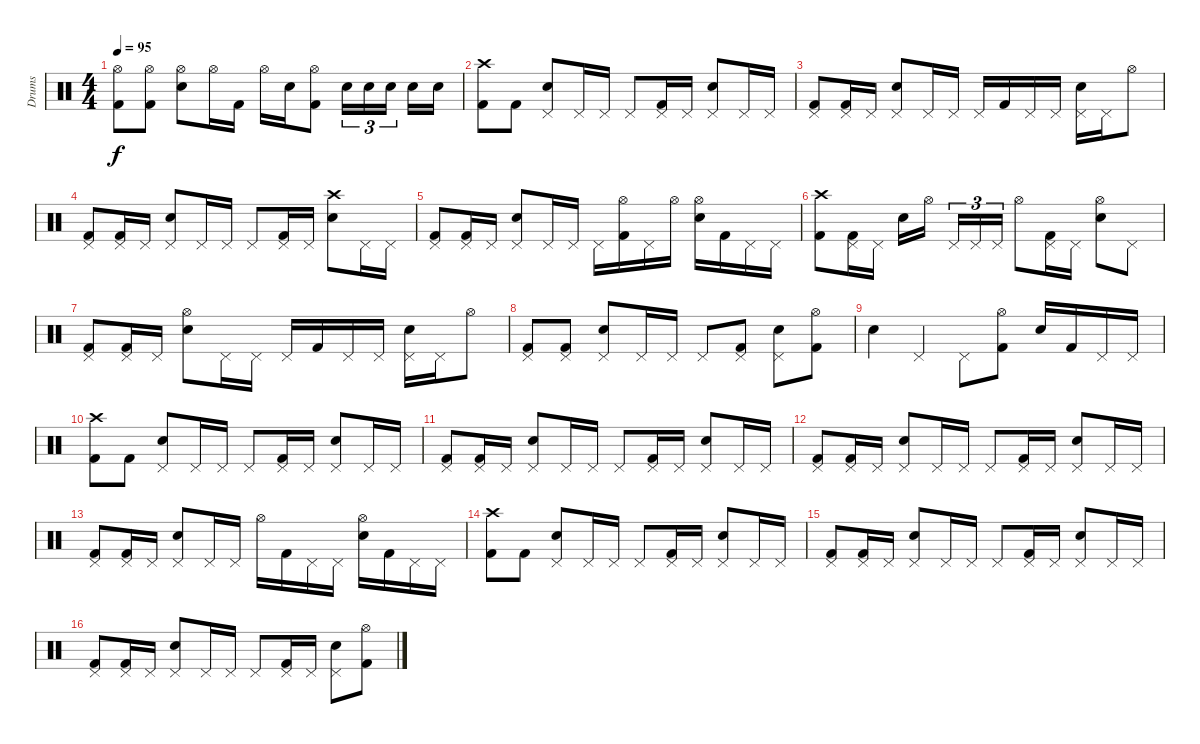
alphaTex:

\track ("Drums" "Drums") {instrument percussion}
\staff {score}
\articulation defaults
\ts (4 4)
\tempo 95
\clef neutral
\ks c
("Hi-Hat (open)" "Kick (hit) 2").8{dy f} ("Hi-Hat (open)" "Kick (hit) 2").8 ("Hi-Hat (open)" "Electric Snare (hit)").8 "Hi-Hat (open)".16 "Kick (hit) 2".16 "Hi-Hat (open)".16 "Electric Snare (hit)".16 ("Hi-Hat (open)" "Kick (hit) 2").8 "Electric Snare (hit)".16{tu (3 2)} "Electric Snare (hit)".16{tu (3 2)} "Electric Snare (hit)".16{tu (3 2) beam splitsecondary} "Electric Snare (hit)".16 "Electric Snare (hit)".16 |
("Crash high (hit)" "Kick (hit) 2").8 "Kick (hit) 2".8 ("Pedal Hi-Hat (hit)" "Electric Snare (hit)").8 "Pedal Hi-Hat (hit)".16 "Pedal Hi-Hat (hit)".16 "Pedal Hi-Hat (hit)".8 ("Pedal Hi-Hat (hit)" "Kick (hit) 2").16 "Pedal Hi-Hat (hit)".16 ("Pedal Hi-Hat (hit)" "Electric Snare (hit)").8 "Pedal Hi-Hat (hit)".16 "Pedal Hi-Hat (hit)".16 |
("Pedal Hi-Hat (hit)" "Kick (hit) 2").8 ("Pedal Hi-Hat (hit)" "Kick (hit) 2").16 "Pedal Hi-Hat (hit)".16 ("Pedal Hi-Hat (hit)" "Electric Snare (hit)").8 "Pedal Hi-Hat (hit)".16 "Pedal Hi-Hat (hit)".16 "Pedal Hi-Hat (hit)".16 "Kick (hit) 2".16 "Pedal Hi-Hat (hit)".16 "Pedal Hi-Hat (hit)".16 ("Pedal Hi-Hat (hit)" "Electric Snare (hit)").16 "Pedal Hi-Hat (hit)".16 "Hi-Hat (open)".8 |
("Pedal Hi-Hat (hit)" "Kick (hit) 2").8 ("Pedal Hi-Hat (hit)" "Kick (hit) 2").16 "Pedal Hi-Hat (hit)".16 ("Pedal Hi-Hat (hit)" "Electric Snare (hit)").8 "Pedal Hi-Hat (hit)".16 "Pedal Hi-Hat (hit)".16 "Pedal Hi-Hat (hit)".8 ("Pedal Hi-Hat (hit)" "Kick (hit) 2").16 "Pedal Hi-Hat (hit)".16 ("Crash high (hit)" "Electric Snare (hit)").8 "Pedal Hi-Hat (hit)".16 "Pedal Hi-Hat (hit)".16 |
("Pedal Hi-Hat (hit)" "Kick (hit) 2").8 ("Pedal Hi-Hat (hit)" "Kick (hit) 2").16 "Pedal Hi-Hat (hit)".16 ("Pedal Hi-Hat (hit)" "Electric Snare (hit)").8 "Pedal Hi-Hat (hit)".16 "Pedal Hi-Hat (hit)".16 "Pedal Hi-Hat (hit)".16 ("Hi-Hat (open)" "Kick (hit) 2").16 "Pedal Hi-Hat (hit)".16 "Hi-Hat (open)".16 ("Hi-Hat (open)" "Electric Snare (hit)").16 "Kick (hit) 2".16 "Pedal Hi-Hat (hit)".16 "Pedal Hi-Hat (hit)".16 |
("Crash high (hit)" "Kick (hit) 2").8 ("Pedal Hi-Hat (hit)" "Kick (hit) 2").16 "Pedal Hi-Hat (hit)".16 "Electric Snare (hit)".16 "Hi-Hat (open)".16{beam splitsecondary} "Pedal Hi-Hat (hit)".16{tu (3 2)} "Pedal Hi-Hat (hit)".16{tu (3 2)} "Pedal Hi-Hat (hit)".16{tu (3 2)} "Hi-Hat (open)".8 ("Pedal Hi-Hat (hit)" "Kick (hit) 2").16 "Pedal Hi-Hat (hit)".16 ("Hi-Hat (open)" "Electric Snare (hit)").8 "Pedal Hi-Hat (hit)".8 |
("Pedal Hi-Hat (hit)" "Kick (hit) 2").8 ("Pedal Hi-Hat (hit)" "Kick (hit) 2").16 "Pedal Hi-Hat (hit)".16 ("Hi-Hat (open)" "Electric Snare (hit)").8 "Pedal Hi-Hat (hit)".16 "Pedal Hi-Hat (hit)".16 "Pedal Hi-Hat (hit)".16 "Kick (hit) 2".16 "Pedal Hi-Hat (hit)".16 "Pedal Hi-Hat (hit)".16 ("Pedal Hi-Hat (hit)" "Electric Snare (hit)").16 "Pedal Hi-Hat (hit)".16 "Hi-Hat (open)".8 |
("Pedal Hi-Hat (hit)" "Kick (hit) 2").8 ("Pedal Hi-Hat (hit)" "Kick (hit) 2").8 ("Pedal Hi-Hat (hit)" "Electric Snare (hit)").8 "Pedal Hi-Hat (hit)".16 "Pedal Hi-Hat (hit)".16 "Pedal Hi-Hat (hit)".8 ("Pedal Hi-Hat (hit)" "Kick (hit) 2").8 ("Pedal Hi-Hat (hit)" "Electric Snare (hit)").8 ("Hi-Hat (open)" "Kick (hit) 2").8 |
"Electric Snare (hit)".4 "Pedal Hi-Hat (hit)".4 "Pedal Hi-Hat (hit)".8 ("Hi-Hat (open)" "Kick (hit) 2").8 "Electric Snare (hit)".16 "Kick (hit) 2".16 "Pedal Hi-Hat (hit)".16 "Pedal Hi-Hat (hit)".16 |
("Crash high (hit)" "Kick (hit) 2").8 "Kick (hit) 2".8 ("Pedal Hi-Hat (hit)" "Electric Snare (hit)").8 "Pedal Hi-Hat (hit)".16 "Pedal Hi-Hat (hit)".16 "Pedal Hi-Hat (hit)".8 ("Pedal Hi-Hat (hit)" "Kick (hit) 2").16 "Pedal Hi-Hat (hit)".16 ("Pedal Hi-Hat (hit)" "Electric Snare (hit)").8 "Pedal Hi-Hat (hit)".16 "Pedal Hi-Hat (hit)".16 |
("Pedal Hi-Hat (hit)" "Kick (hit) 2").8 ("Pedal Hi-Hat (hit)" "Kick (hit) 2").16 "Pedal Hi-Hat (hit)".16 ("Pedal Hi-Hat (hit)" "Electric Snare (hit)").8 "Pedal Hi-Hat (hit)".16 "Pedal Hi-Hat (hit)".16 "Pedal Hi-Hat (hit)".8 ("Pedal Hi-Hat (hit)" "Kick (hit) 2").16 "Pedal Hi-Hat (hit)".16 ("Pedal Hi-Hat (hit)" "Electric Snare (hit)").8 "Pedal Hi-Hat (hit)".16 "Pedal Hi-Hat (hit)".16 |
("Pedal Hi-Hat (hit)" "Kick (hit) 2").8 ("Pedal Hi-Hat (hit)" "Kick (hit) 2").16 "Pedal Hi-Hat (hit)".16 ("Pedal Hi-Hat (hit)" "Electric Snare (hit)").8 "Pedal Hi-Hat (hit)".16 "Pedal Hi-Hat (hit)".16 "Pedal Hi-Hat (hit)".8 ("Pedal Hi-Hat (hit)" "Kick (hit) 2").16 "Pedal Hi-Hat (hit)".16 ("Pedal Hi-Hat (hit)" "Electric Snare (hit)").8 "Pedal Hi-Hat (hit)".16 "Pedal Hi-Hat (hit)".16 |
("Pedal Hi-Hat (hit)" "Kick (hit) 2").8 ("Pedal Hi-Hat (hit)" "Kick (hit) 2").16 "Pedal Hi-Hat (hit)".16 ("Pedal Hi-Hat (hit)" "Electric Snare (hit)").8 "Pedal Hi-Hat (hit)".16 "Pedal Hi-Hat (hit)".16 "Hi-Hat (open)".16 "Kick (hit) 2".16 "Pedal Hi-Hat (hit)".16 "Pedal Hi-Hat (hit)".16 ("Hi-Hat (open)" "Electric Snare (hit)").16 "Kick (hit) 2".16 "Pedal Hi-Hat (hit)".16 "Pedal Hi-Hat (hit)".16 |
("Crash high (hit)" "Kick (hit) 2").8 "Kick (hit) 2".8 ("Pedal Hi-Hat (hit)" "Electric Snare (hit)").8 "Pedal Hi-Hat (hit)".16 "Pedal Hi-Hat (hit)".16 "Pedal Hi-Hat (hit)".8 ("Pedal Hi-Hat (hit)" "Kick (hit) 2").16 "Pedal Hi-Hat (hit)".16 ("Pedal Hi-Hat (hit)" "Electric Snare (hit)").8 "Pedal Hi-Hat (hit)".16 "Pedal Hi-Hat (hit)".16 |
("Pedal Hi-Hat (hit)" "Kick (hit) 2").8 ("Pedal Hi-Hat (hit)" "Kick (hit) 2").16 "Pedal Hi-Hat (hit)".16 ("Pedal Hi-Hat (hit)" "Electric Snare (hit)").8 "Pedal Hi-Hat (hit)".16 "Pedal Hi-Hat (hit)".16 "Pedal Hi-Hat (hit)".8 ("Pedal Hi-Hat (hit)" "Kick (hit) 2").16 "Pedal Hi-Hat (hit)".16 ("Pedal Hi-Hat (hit)" "Electric Snare (hit)").8 "Pedal Hi-Hat (hit)".16 "Pedal Hi-Hat (hit)".16 |
("Pedal Hi-Hat (hit)" "Kick (hit) 2").8 ("Pedal Hi-Hat (hit)" "Kick (hit) 2").16 "Pedal Hi-Hat (hit)".16 ("Pedal Hi-Hat (hit)" "Electric Snare (hit)").8 "Pedal Hi-Hat (hit)".16 "Pedal Hi-Hat (hit)".16 "Pedal Hi-Hat (hit)".8 ("Pedal Hi-Hat (hit)" "Kick (hit) 2").16 "Pedal Hi-Hat (hit)".16 ("Pedal Hi-Hat (hit)" "Electric Snare (hit)").8 ("Hi-Hat (open)" "Kick (hit) 2").8
